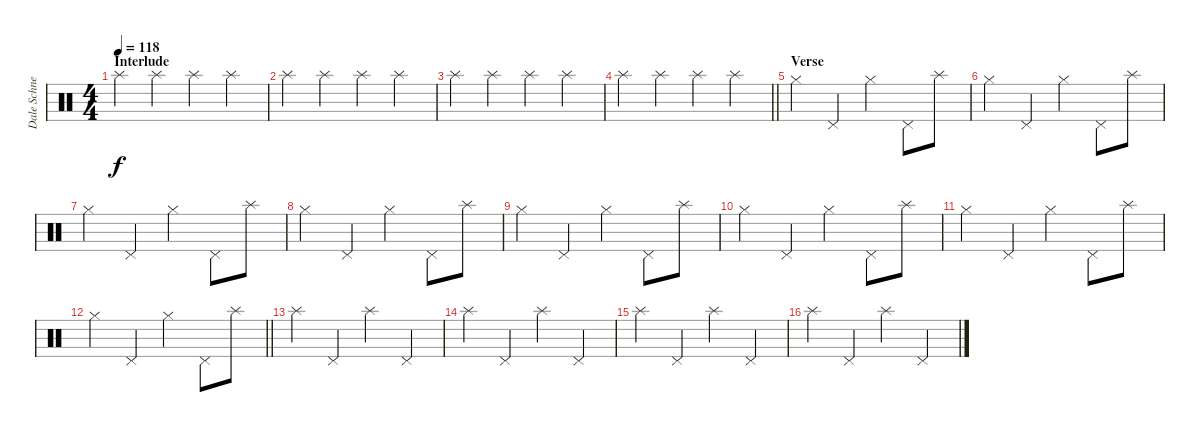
\track ("Dale Schnettler (Drums)" "Dale Schne") {instrument percussion}
\staff {score}
\articulation defaults
\ts (4 4)
\section ("" "Interlude")
\tempo 118
\clef neutral
\ks c "Splash (hit)".4{dy f} "Splash (hit)".4 "Splash (hit)".4 "Splash (hit)".4
|
"Splash (hit)".4 "Splash (hit)".4 "Splash (hit)".4 "Splash (hit)".4 |
"Splash (hit)".4 "Splash (hit)".4 "Splash (hit)".4 "Splash (hit)".4 |
\barLineRight lightlight "Splash (hit)".4 "Splash (hit)".4 "Splash (hit)".4 "Splash (hit)".4
|
\section ("" "Verse")
"Hi-Hat (closed)".4 "Pedal Hi-Hat (hit)".4 "Hi-Hat (closed)".4 "Pedal Hi-Hat (hit)".8 "Splash (hit)".8 |
"Hi-Hat (closed)".4 "Pedal Hi-Hat (hit)".4 "Hi-Hat (closed)".4 "Pedal Hi-Hat (hit)".8 "Splash (hit)".8 |
"Hi-Hat (closed)".4 "Pedal Hi-Hat (hit)".4 "Hi-Hat (closed)".4 "Pedal Hi-Hat (hit)".8 "Splash (hit)".8 |
"Hi-Hat (closed)".4 "Pedal Hi-Hat (hit)".4 "Hi-Hat (closed)".4 "Pedal Hi-Hat (hit)".8 "Splash (hit)".8 |
"Hi-Hat (closed)".4 "Pedal Hi-Hat (hit)".4 "Hi-Hat (closed)".4 "Pedal Hi-Hat (hit)".8 "Splash (hit)".8 |
"Hi-Hat (closed)".4 "Pedal Hi-Hat (hit)".4 "Hi-Hat (closed)".4 "Pedal Hi-Hat (hit)".8 "Splash (hit)".8 |
"Hi-Hat (closed)".4 "Pedal Hi-Hat (hit)".4 "Hi-Hat (closed)".4 "Pedal Hi-Hat (hit)".8 "Splash (hit)".8 |
\barLineRight lightlight "Hi-Hat (closed)".4 "Pedal Hi-Hat (hit)".4 "Hi-Hat (closed)".4 "Pedal Hi-Hat (hit)".8 "Splash (hit)".8
|
"Splash (hit)".4 "Pedal Hi-Hat (hit)".4 "Splash (hit)".4 "Pedal Hi-Hat (hit)".4 |
"Splash (hit)".4 "Pedal Hi-Hat (hit)".4 "Splash (hit)".4 "Pedal Hi-Hat (hit)".4 |
"Splash (hit)".4 "Pedal Hi-Hat (hit)".4 "Splash (hit)".4 "Pedal Hi-Hat (hit)".4 |
"Splash (hit)".4 "Pedal Hi-Hat (hit)".4 "Splash (hit)".4 "Pedal Hi-Hat (hit)".4
